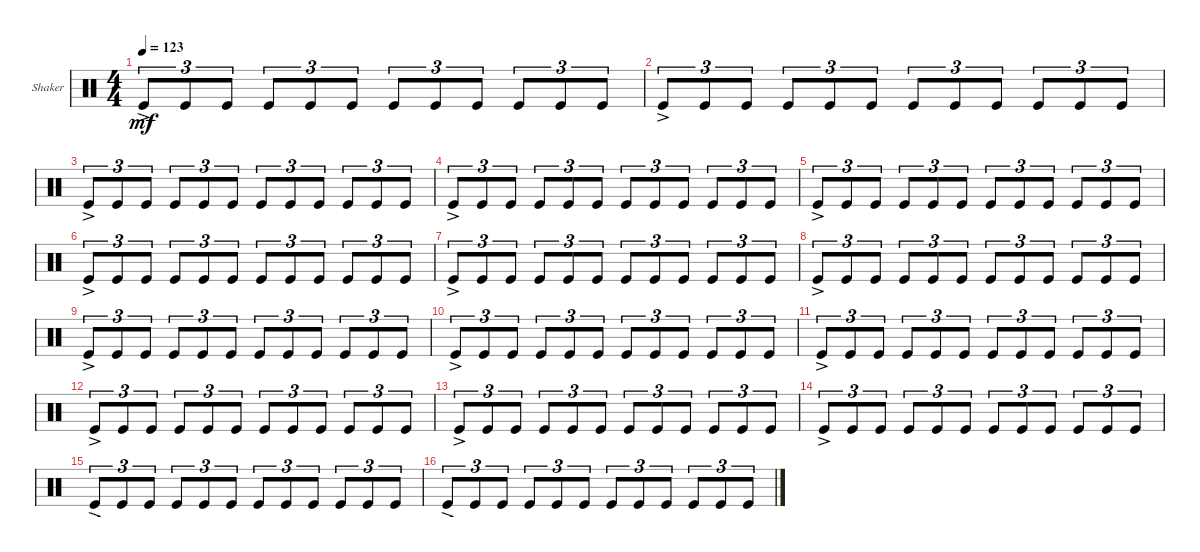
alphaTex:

\defaultSystemsLayout 4
\bracketExtendMode groupsimilarinstruments
\firstSystemTrackNameOrientation horizontal
\otherSystemsTrackNameOrientation horizontal
\track ("Shaker" "Shaker") {multiBarRest instrument percussion}
\staff {score}
\articulation defaults
\ts (4 4)
\tempo 123
\clef neutral
\ks c "Kick (hit)"{ac}.8{tu (3 2) dy mf} "Kick (hit)".8{tu (3 2)} "Kick (hit)".8{tu (3 2)} "Kick (hit)".8{tu (3 2)} "Kick (hit)".8{tu (3 2)} "Kick (hit)".8{tu (3 2)} "Kick (hit)".8{tu (3 2)} "Kick (hit)".8{tu (3 2)} "Kick (hit)".8{tu (3 2)} "Kick (hit)".8{tu (3 2)} "Kick (hit)".8{tu (3 2)} "Kick (hit)".8{tu (3 2)}
|
"Kick (hit)"{ac}.8{tu (3 2)} "Kick (hit)".8{tu (3 2)} "Kick (hit)".8{tu (3 2)} "Kick (hit)".8{tu (3 2)} "Kick (hit)".8{tu (3 2)} "Kick (hit)".8{tu (3 2)} "Kick (hit)".8{tu (3 2)} "Kick (hit)".8{tu (3 2)} "Kick (hit)".8{tu (3 2)} "Kick (hit)".8{tu (3 2)} "Kick (hit)".8{tu (3 2)} "Kick (hit)".8{tu (3 2)} |
"Kick (hit)"{ac}.8{tu (3 2)} "Kick (hit)".8{tu (3 2)} "Kick (hit)".8{tu (3 2)} "Kick (hit)".8{tu (3 2)} "Kick (hit)".8{tu (3 2)} "Kick (hit)".8{tu (3 2)} "Kick (hit)".8{tu (3 2)} "Kick (hit)".8{tu (3 2)} "Kick (hit)".8{tu (3 2)} "Kick (hit)".8{tu (3 2)} "Kick (hit)".8{tu (3 2)} "Kick (hit)".8{tu (3 2)} |
"Kick (hit)"{ac}.8{tu (3 2)} "Kick (hit)".8{tu (3 2)} "Kick (hit)".8{tu (3 2)} "Kick (hit)".8{tu (3 2)} "Kick (hit)".8{tu (3 2)} "Kick (hit)".8{tu (3 2)} "Kick (hit)".8{tu (3 2)} "Kick (hit)".8{tu (3 2)} "Kick (hit)".8{tu (3 2)} "Kick (hit)".8{tu (3 2)} "Kick (hit)".8{tu (3 2)} "Kick (hit)".8{tu (3 2)} |
"Kick (hit)"{ac}.8{tu (3 2)} "Kick (hit)".8{tu (3 2)} "Kick (hit)".8{tu (3 2)} "Kick (hit)".8{tu (3 2)} "Kick (hit)".8{tu (3 2)} "Kick (hit)".8{tu (3 2)} "Kick (hit)".8{tu (3 2)} "Kick (hit)".8{tu (3 2)} "Kick (hit)".8{tu (3 2)} "Kick (hit)".8{tu (3 2)} "Kick (hit)".8{tu (3 2)} "Kick (hit)".8{tu (3 2)} |
"Kick (hit)"{ac}.8{tu (3 2)} "Kick (hit)".8{tu (3 2)} "Kick (hit)".8{tu (3 2)} "Kick (hit)".8{tu (3 2)} "Kick (hit)".8{tu (3 2)} "Kick (hit)".8{tu (3 2)} "Kick (hit)".8{tu (3 2)} "Kick (hit)".8{tu (3 2)} "Kick (hit)".8{tu (3 2)} "Kick (hit)".8{tu (3 2)} "Kick (hit)".8{tu (3 2)} "Kick (hit)".8{tu (3 2)} |
"Kick (hit)"{ac}.8{tu (3 2)} "Kick (hit)".8{tu (3 2)} "Kick (hit)".8{tu (3 2)} "Kick (hit)".8{tu (3 2)} "Kick (hit)".8{tu (3 2)} "Kick (hit)".8{tu (3 2)} "Kick (hit)".8{tu (3 2)} "Kick (hit)".8{tu (3 2)} "Kick (hit)".8{tu (3 2)} "Kick (hit)".8{tu (3 2)} "Kick (hit)".8{tu (3 2)} "Kick (hit)".8{tu (3 2)} |
"Kick (hit)"{ac}.8{tu (3 2)} "Kick (hit)".8{tu (3 2)} "Kick (hit)".8{tu (3 2)} "Kick (hit)".8{tu (3 2)} "Kick (hit)".8{tu (3 2)} "Kick (hit)".8{tu (3 2)} "Kick (hit)".8{tu (3 2)} "Kick (hit)".8{tu (3 2)} "Kick (hit)".8{tu (3 2)} "Kick (hit)".8{tu (3 2)} "Kick (hit)".8{tu (3 2)} "Kick (hit)".8{tu (3 2)} |
"Kick (hit)"{ac}.8{tu (3 2)} "Kick (hit)".8{tu (3 2)} "Kick (hit)".8{tu (3 2)} "Kick (hit)".8{tu (3 2)} "Kick (hit)".8{tu (3 2)} "Kick (hit)".8{tu (3 2)} "Kick (hit)".8{tu (3 2)} "Kick (hit)".8{tu (3 2)} "Kick (hit)".8{tu (3 2)} "Kick (hit)".8{tu (3 2)} "Kick (hit)".8{tu (3 2)} "Kick (hit)".8{tu (3 2)} |
"Kick (hit)"{ac}.8{tu (3 2)} "Kick (hit)".8{tu (3 2)} "Kick (hit)".8{tu (3 2)} "Kick (hit)".8{tu (3 2)} "Kick (hit)".8{tu (3 2)} "Kick (hit)".8{tu (3 2)} "Kick (hit)".8{tu (3 2)} "Kick (hit)".8{tu (3 2)} "Kick (hit)".8{tu (3 2)} "Kick (hit)".8{tu (3 2)} "Kick (hit)".8{tu (3 2)} "Kick (hit)".8{tu (3 2)} |
"Kick (hit)"{ac}.8{tu (3 2)} "Kick (hit)".8{tu (3 2)} "Kick (hit)".8{tu (3 2)} "Kick (hit)".8{tu (3 2)} "Kick (hit)".8{tu (3 2)} "Kick (hit)".8{tu (3 2)} "Kick (hit)".8{tu (3 2)} "Kick (hit)".8{tu (3 2)} "Kick (hit)".8{tu (3 2)} "Kick (hit)".8{tu (3 2)} "Kick (hit)".8{tu (3 2)} "Kick (hit)".8{tu (3 2)} |
"Kick (hit)"{ac}.8{tu (3 2)} "Kick (hit)".8{tu (3 2)} "Kick (hit)".8{tu (3 2)} "Kick (hit)".8{tu (3 2)} "Kick (hit)".8{tu (3 2)} "Kick (hit)".8{tu (3 2)} "Kick (hit)".8{tu (3 2)} "Kick (hit)".8{tu (3 2)} "Kick (hit)".8{tu (3 2)} "Kick (hit)".8{tu (3 2)} "Kick (hit)".8{tu (3 2)} "Kick (hit)".8{tu (3 2)} |
"Kick (hit)"{ac}.8{tu (3 2)} "Kick (hit)".8{tu (3 2)} "Kick (hit)".8{tu (3 2)} "Kick (hit)".8{tu (3 2)} "Kick (hit)".8{tu (3 2)} "Kick (hit)".8{tu (3 2)} "Kick (hit)".8{tu (3 2)} "Kick (hit)".8{tu (3 2)} "Kick (hit)".8{tu (3 2)} "Kick (hit)".8{tu (3 2)} "Kick (hit)".8{tu (3 2)} "Kick (hit)".8{tu (3 2)} |
"Kick (hit)"{ac}.8{tu (3 2)} "Kick (hit)".8{tu (3 2)} "Kick (hit)".8{tu (3 2)} "Kick (hit)".8{tu (3 2)} "Kick (hit)".8{tu (3 2)} "Kick (hit)".8{tu (3 2)} "Kick (hit)".8{tu (3 2)} "Kick (hit)".8{tu (3 2)} "Kick (hit)".8{tu (3 2)} "Kick (hit)".8{tu (3 2)} "Kick (hit)".8{tu (3 2)} "Kick (hit)".8{tu (3 2)} |
"Kick (hit)"{ac}.8{tu (3 2)} "Kick (hit)".8{tu (3 2)} "Kick (hit)".8{tu (3 2)} "Kick (hit)".8{tu (3 2)} "Kick (hit)".8{tu (3 2)} "Kick (hit)".8{tu (3 2)} "Kick (hit)".8{tu (3 2)} "Kick (hit)".8{tu (3 2)} "Kick (hit)".8{tu (3 2)} "Kick (hit)".8{tu (3 2)} "Kick (hit)".8{tu (3 2)} "Kick (hit)".8{tu (3 2)} |
"Kick (hit)"{ac}.8{tu (3 2)} "Kick (hit)".8{tu (3 2)} "Kick (hit)".8{tu (3 2)} "Kick (hit)".8{tu (3 2)} "Kick (hit)".8{tu (3 2)} "Kick (hit)".8{tu (3 2)} "Kick (hit)".8{tu (3 2)} "Kick (hit)".8{tu (3 2)} "Kick (hit)".8{tu (3 2)} "Kick (hit)".8{tu (3 2)} "Kick (hit)".8{tu (3 2)} "Kick (hit)".8{tu (3 2)}
